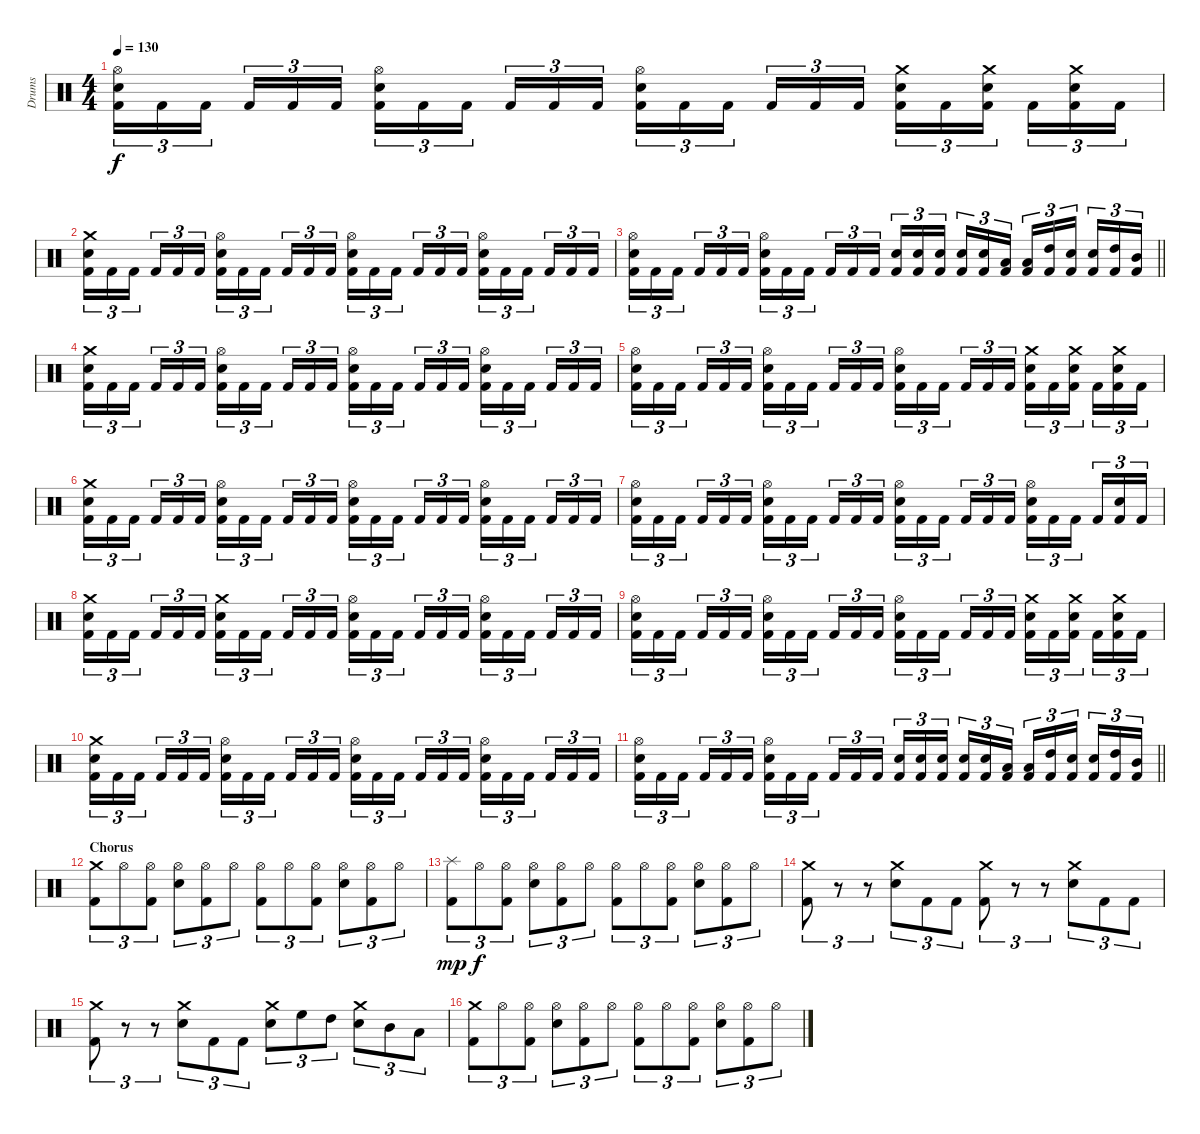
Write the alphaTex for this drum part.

\track ("Drums" "Drums") {instrument percussion}
\staff {score}
\articulation defaults
\ts (4 4)
\tempo 130
\clef neutral
\ks c
("Kick (hit) 2" "Electric Snare (hit)" "Hi-Hat (open)").16{tu (3 2) dy f} "Kick (hit) 2".16{tu (3 2)} "Kick (hit) 2".16{tu (3 2)} "Kick (hit) 2".16{tu (3 2)} "Kick (hit) 2".16{tu (3 2)} "Kick (hit) 2".16{tu (3 2)} ("Kick (hit) 2" "Electric Snare (hit)" "Hi-Hat (open)").16{tu (3 2)} "Kick (hit) 2".16{tu (3 2)} "Kick (hit) 2".16{tu (3 2)} "Kick (hit) 2".16{tu (3 2)} "Kick (hit) 2".16{tu (3 2)} "Kick (hit) 2".16{tu (3 2)} ("Kick (hit) 2" "Electric Snare (hit)" "Hi-Hat (open)").16{tu (3 2)} "Kick (hit) 2".16{tu (3 2)} "Kick (hit) 2".16{tu (3 2)} "Kick (hit) 2".16{tu (3 2)} "Kick (hit) 2".16{tu (3 2)} "Kick (hit) 2".16{tu (3 2)} ("Kick (hit) 2" "Electric Snare (hit)" "Crash medium (hit)").16{tu (3 2)} "Kick (hit) 2".16{tu (3 2)} ("Kick (hit) 2" "Electric Snare (hit)" "Crash medium (hit)").16{tu (3 2)} "Kick (hit) 2".16{tu (3 2)} ("Kick (hit) 2" "Electric Snare (hit)" "Crash medium (hit)").16{tu (3 2)} "Kick (hit) 2".16{tu (3 2)} |
("Kick (hit) 2" "Electric Snare (hit)" "Crash medium (hit)").16{tu (3 2)} "Kick (hit) 2".16{tu (3 2)} "Kick (hit) 2".16{tu (3 2)} "Kick (hit) 2".16{tu (3 2)} "Kick (hit) 2".16{tu (3 2)} "Kick (hit) 2".16{tu (3 2)} ("Kick (hit) 2" "Electric Snare (hit)" "Hi-Hat (open)").16{tu (3 2)} "Kick (hit) 2".16{tu (3 2)} "Kick (hit) 2".16{tu (3 2)} "Kick (hit) 2".16{tu (3 2)} "Kick (hit) 2".16{tu (3 2)} "Kick (hit) 2".16{tu (3 2)} ("Kick (hit) 2" "Electric Snare (hit)" "Hi-Hat (open)").16{tu (3 2)} "Kick (hit) 2".16{tu (3 2)} "Kick (hit) 2".16{tu (3 2)} "Kick (hit) 2".16{tu (3 2)} "Kick (hit) 2".16{tu (3 2)} "Kick (hit) 2".16{tu (3 2)} ("Kick (hit) 2" "Electric Snare (hit)" "Hi-Hat (open)").16{tu (3 2)} "Kick (hit) 2".16{tu (3 2)} "Kick (hit) 2".16{tu (3 2)} "Kick (hit) 2".16{tu (3 2)} "Kick (hit) 2".16{tu (3 2)} "Kick (hit) 2".16{tu (3 2)} |
\barLineRight lightlight
("Kick (hit) 2" "Electric Snare (hit)" "Hi-Hat (open)").16{tu (3 2)} "Kick (hit) 2".16{tu (3 2)} "Kick (hit) 2".16{tu (3 2)} "Kick (hit) 2".16{tu (3 2)} "Kick (hit) 2".16{tu (3 2)} "Kick (hit) 2".16{tu (3 2)} ("Kick (hit) 2" "Electric Snare (hit)" "Hi-Hat (open)").16{tu (3 2)} "Kick (hit) 2".16{tu (3 2)} "Kick (hit) 2".16{tu (3 2)} "Kick (hit) 2".16{tu (3 2)} "Kick (hit) 2".16{tu (3 2)} "Kick (hit) 2".16{tu (3 2)} ("Kick (hit) 2" "Electric Snare (hit)").16{tu (3 2)} ("Kick (hit) 2" "Electric Snare (hit)").16{tu (3 2)} ("Kick (hit) 2" "Electric Snare (hit)").16{tu (3 2)} ("Kick (hit) 2" "Electric Snare (hit)").16{tu (3 2)} ("Kick (hit) 2" "Electric Snare (hit)").16{tu (3 2)} ("Kick (hit) 2" "Low Tom (hit)").16{tu (3 2)} ("Kick (hit) 2" "Low Tom (hit)").16{tu (3 2)} ("Kick (hit) 2" "High Tom (hit)").16{tu (3 2)} ("Kick (hit) 2" "Electric Snare (hit)").16{tu (3 2)} ("Kick (hit) 2" "Electric Snare (hit)").16{tu (3 2)} ("Kick (hit) 2" "High Tom (hit)").16{tu (3 2)} ("Kick (hit) 2" "Mid Tom (hit)").16{tu (3 2)} |
("Kick (hit) 2" "Electric Snare (hit)" "Crash medium (hit)").16{tu (3 2)} "Kick (hit) 2".16{tu (3 2)} "Kick (hit) 2".16{tu (3 2)} "Kick (hit) 2".16{tu (3 2)} "Kick (hit) 2".16{tu (3 2)} "Kick (hit) 2".16{tu (3 2)} ("Kick (hit) 2" "Electric Snare (hit)" "Hi-Hat (open)").16{tu (3 2)} "Kick (hit) 2".16{tu (3 2)} "Kick (hit) 2".16{tu (3 2)} "Kick (hit) 2".16{tu (3 2)} "Kick (hit) 2".16{tu (3 2)} "Kick (hit) 2".16{tu (3 2)} ("Kick (hit) 2" "Electric Snare (hit)" "Hi-Hat (open)").16{tu (3 2)} "Kick (hit) 2".16{tu (3 2)} "Kick (hit) 2".16{tu (3 2)} "Kick (hit) 2".16{tu (3 2)} "Kick (hit) 2".16{tu (3 2)} "Kick (hit) 2".16{tu (3 2)} ("Kick (hit) 2" "Electric Snare (hit)" "Hi-Hat (open)").16{tu (3 2)} "Kick (hit) 2".16{tu (3 2)} "Kick (hit) 2".16{tu (3 2)} "Kick (hit) 2".16{tu (3 2)} "Kick (hit) 2".16{tu (3 2)} "Kick (hit) 2".16{tu (3 2)} |
("Kick (hit) 2" "Electric Snare (hit)" "Hi-Hat (open)").16{tu (3 2)} "Kick (hit) 2".16{tu (3 2)} "Kick (hit) 2".16{tu (3 2)} "Kick (hit) 2".16{tu (3 2)} "Kick (hit) 2".16{tu (3 2)} "Kick (hit) 2".16{tu (3 2)} ("Kick (hit) 2" "Electric Snare (hit)" "Hi-Hat (open)").16{tu (3 2)} "Kick (hit) 2".16{tu (3 2)} "Kick (hit) 2".16{tu (3 2)} "Kick (hit) 2".16{tu (3 2)} "Kick (hit) 2".16{tu (3 2)} "Kick (hit) 2".16{tu (3 2)} ("Kick (hit) 2" "Electric Snare (hit)" "Hi-Hat (open)").16{tu (3 2)} "Kick (hit) 2".16{tu (3 2)} "Kick (hit) 2".16{tu (3 2)} "Kick (hit) 2".16{tu (3 2)} "Kick (hit) 2".16{tu (3 2)} "Kick (hit) 2".16{tu (3 2)} ("Kick (hit) 2" "Electric Snare (hit)" "Crash medium (hit)").16{tu (3 2)} "Kick (hit) 2".16{tu (3 2)} ("Kick (hit) 2" "Electric Snare (hit)" "Crash medium (hit)").16{tu (3 2)} "Kick (hit) 2".16{tu (3 2)} ("Kick (hit) 2" "Electric Snare (hit)" "Crash medium (hit)").16{tu (3 2)} "Kick (hit) 2".16{tu (3 2)} |
("Kick (hit) 2" "Electric Snare (hit)" "Crash medium (hit)").16{tu (3 2)} "Kick (hit) 2".16{tu (3 2)} "Kick (hit) 2".16{tu (3 2)} "Kick (hit) 2".16{tu (3 2)} "Kick (hit) 2".16{tu (3 2)} "Kick (hit) 2".16{tu (3 2)} ("Kick (hit) 2" "Electric Snare (hit)" "Hi-Hat (open)").16{tu (3 2)} "Kick (hit) 2".16{tu (3 2)} "Kick (hit) 2".16{tu (3 2)} "Kick (hit) 2".16{tu (3 2)} "Kick (hit) 2".16{tu (3 2)} "Kick (hit) 2".16{tu (3 2)} ("Kick (hit) 2" "Electric Snare (hit)" "Hi-Hat (open)").16{tu (3 2)} "Kick (hit) 2".16{tu (3 2)} "Kick (hit) 2".16{tu (3 2)} "Kick (hit) 2".16{tu (3 2)} "Kick (hit) 2".16{tu (3 2)} "Kick (hit) 2".16{tu (3 2)} ("Kick (hit) 2" "Electric Snare (hit)" "Hi-Hat (open)").16{tu (3 2)} "Kick (hit) 2".16{tu (3 2)} "Kick (hit) 2".16{tu (3 2)} "Kick (hit) 2".16{tu (3 2)} "Kick (hit) 2".16{tu (3 2)} "Kick (hit) 2".16{tu (3 2)} |
("Kick (hit) 2" "Electric Snare (hit)" "Hi-Hat (open)").16{tu (3 2)} "Kick (hit) 2".16{tu (3 2)} "Kick (hit) 2".16{tu (3 2)} "Kick (hit) 2".16{tu (3 2)} "Kick (hit) 2".16{tu (3 2)} "Kick (hit) 2".16{tu (3 2)} ("Kick (hit) 2" "Electric Snare (hit)" "Hi-Hat (open)").16{tu (3 2)} "Kick (hit) 2".16{tu (3 2)} "Kick (hit) 2".16{tu (3 2)} "Kick (hit) 2".16{tu (3 2)} "Kick (hit) 2".16{tu (3 2)} "Kick (hit) 2".16{tu (3 2)} ("Kick (hit) 2" "Electric Snare (hit)" "Hi-Hat (open)").16{tu (3 2)} "Kick (hit) 2".16{tu (3 2)} "Kick (hit) 2".16{tu (3 2)} "Kick (hit) 2".16{tu (3 2)} "Kick (hit) 2".16{tu (3 2)} "Kick (hit) 2".16{tu (3 2)} ("Kick (hit) 2" "Electric Snare (hit)" "Hi-Hat (open)").16{tu (3 2)} "Kick (hit) 2".16{tu (3 2)} "Kick (hit) 2".16{tu (3 2)} "Kick (hit) 2".16{tu (3 2)} ("Kick (hit) 2" "Electric Snare (hit)").16{tu (3 2)} "Kick (hit) 2".16{tu (3 2)} |
("Kick (hit) 2" "Electric Snare (hit)" "Crash medium (hit)").16{tu (3 2)} "Kick (hit) 2".16{tu (3 2)} "Kick (hit) 2".16{tu (3 2)} "Kick (hit) 2".16{tu (3 2)} "Kick (hit) 2".16{tu (3 2)} "Kick (hit) 2".16{tu (3 2)} ("Kick (hit) 2" "Electric Snare (hit)" "Crash medium (hit)").16{tu (3 2)} "Kick (hit) 2".16{tu (3 2)} "Kick (hit) 2".16{tu (3 2)} "Kick (hit) 2".16{tu (3 2)} "Kick (hit) 2".16{tu (3 2)} "Kick (hit) 2".16{tu (3 2)} ("Kick (hit) 2" "Electric Snare (hit)" "Hi-Hat (open)").16{tu (3 2)} "Kick (hit) 2".16{tu (3 2)} "Kick (hit) 2".16{tu (3 2)} "Kick (hit) 2".16{tu (3 2)} "Kick (hit) 2".16{tu (3 2)} "Kick (hit) 2".16{tu (3 2)} ("Kick (hit) 2" "Electric Snare (hit)" "Hi-Hat (open)").16{tu (3 2)} "Kick (hit) 2".16{tu (3 2)} "Kick (hit) 2".16{tu (3 2)} "Kick (hit) 2".16{tu (3 2)} "Kick (hit) 2".16{tu (3 2)} "Kick (hit) 2".16{tu (3 2)} |
("Kick (hit) 2" "Electric Snare (hit)" "Hi-Hat (open)").16{tu (3 2)} "Kick (hit) 2".16{tu (3 2)} "Kick (hit) 2".16{tu (3 2)} "Kick (hit) 2".16{tu (3 2)} "Kick (hit) 2".16{tu (3 2)} "Kick (hit) 2".16{tu (3 2)} ("Kick (hit) 2" "Electric Snare (hit)" "Hi-Hat (open)").16{tu (3 2)} "Kick (hit) 2".16{tu (3 2)} "Kick (hit) 2".16{tu (3 2)} "Kick (hit) 2".16{tu (3 2)} "Kick (hit) 2".16{tu (3 2)} "Kick (hit) 2".16{tu (3 2)} ("Kick (hit) 2" "Electric Snare (hit)" "Hi-Hat (open)").16{tu (3 2)} "Kick (hit) 2".16{tu (3 2)} "Kick (hit) 2".16{tu (3 2)} "Kick (hit) 2".16{tu (3 2)} "Kick (hit) 2".16{tu (3 2)} "Kick (hit) 2".16{tu (3 2)} ("Kick (hit) 2" "Electric Snare (hit)" "Crash medium (hit)").16{tu (3 2)} "Kick (hit) 2".16{tu (3 2)} ("Kick (hit) 2" "Electric Snare (hit)" "Crash medium (hit)").16{tu (3 2)} "Kick (hit) 2".16{tu (3 2)} ("Kick (hit) 2" "Electric Snare (hit)" "Crash medium (hit)").16{tu (3 2)} "Kick (hit) 2".16{tu (3 2)} |
("Kick (hit) 2" "Electric Snare (hit)" "Crash medium (hit)").16{tu (3 2)} "Kick (hit) 2".16{tu (3 2)} "Kick (hit) 2".16{tu (3 2)} "Kick (hit) 2".16{tu (3 2)} "Kick (hit) 2".16{tu (3 2)} "Kick (hit) 2".16{tu (3 2)} ("Kick (hit) 2" "Electric Snare (hit)" "Hi-Hat (open)").16{tu (3 2)} "Kick (hit) 2".16{tu (3 2)} "Kick (hit) 2".16{tu (3 2)} "Kick (hit) 2".16{tu (3 2)} "Kick (hit) 2".16{tu (3 2)} "Kick (hit) 2".16{tu (3 2)} ("Kick (hit) 2" "Electric Snare (hit)" "Hi-Hat (open)").16{tu (3 2)} "Kick (hit) 2".16{tu (3 2)} "Kick (hit) 2".16{tu (3 2)} "Kick (hit) 2".16{tu (3 2)} "Kick (hit) 2".16{tu (3 2)} "Kick (hit) 2".16{tu (3 2)} ("Kick (hit) 2" "Electric Snare (hit)" "Hi-Hat (open)").16{tu (3 2)} "Kick (hit) 2".16{tu (3 2)} "Kick (hit) 2".16{tu (3 2)} "Kick (hit) 2".16{tu (3 2)} "Kick (hit) 2".16{tu (3 2)} "Kick (hit) 2".16{tu (3 2)} |
\barLineRight lightlight
("Kick (hit) 2" "Electric Snare (hit)" "Hi-Hat (open)").16{tu (3 2)} "Kick (hit) 2".16{tu (3 2)} "Kick (hit) 2".16{tu (3 2)} "Kick (hit) 2".16{tu (3 2)} "Kick (hit) 2".16{tu (3 2)} "Kick (hit) 2".16{tu (3 2)} ("Kick (hit) 2" "Electric Snare (hit)" "Hi-Hat (open)").16{tu (3 2)} "Kick (hit) 2".16{tu (3 2)} "Kick (hit) 2".16{tu (3 2)} "Kick (hit) 2".16{tu (3 2)} "Kick (hit) 2".16{tu (3 2)} "Kick (hit) 2".16{tu (3 2)} ("Kick (hit) 2" "Electric Snare (hit)").16{tu (3 2)} ("Kick (hit) 2" "Electric Snare (hit)").16{tu (3 2)} ("Kick (hit) 2" "Electric Snare (hit)").16{tu (3 2)} ("Kick (hit) 2" "Electric Snare (hit)").16{tu (3 2)} ("Kick (hit) 2" "Electric Snare (hit)").16{tu (3 2)} ("Kick (hit) 2" "Low Tom (hit)").16{tu (3 2)} ("Kick (hit) 2" "Low Tom (hit)").16{tu (3 2)} ("Kick (hit) 2" "High Tom (hit)").16{tu (3 2)} ("Kick (hit) 2" "Electric Snare (hit)").16{tu (3 2)} ("Kick (hit) 2" "Electric Snare (hit)").16{tu (3 2)} ("Kick (hit) 2" "High Tom (hit)").16{tu (3 2)} ("Kick (hit) 2" "Mid Tom (hit)").16{tu (3 2)} |
\section ("" "Chorus")
("Kick (hit) 2" "Crash medium (hit)").8{tu (3 2)} "Hi-Hat (open)".8{tu (3 2)} ("Kick (hit) 2" "Hi-Hat (open)").8{tu (3 2)} ("Electric Snare (hit)" "Hi-Hat (open)").8{tu (3 2)} ("Kick (hit) 2" "Hi-Hat (open)").8{tu (3 2)} "Hi-Hat (open)".8{tu (3 2)} ("Kick (hit) 2" "Hi-Hat (open)").8{tu (3 2)} "Hi-Hat (open)".8{tu (3 2)} ("Kick (hit) 2" "Hi-Hat (open)").8{tu (3 2)} ("Electric Snare (hit)" "Hi-Hat (open)").8{tu (3 2)} ("Kick (hit) 2" "Hi-Hat (open)").8{tu (3 2)} "Hi-Hat (open)".8{tu (3 2)} |
("Kick (hit) 2" "Splash (hit)").8{tu (3 2) dy mp} "Hi-Hat (open)".8{tu (3 2) dy f} ("Kick (hit) 2" "Hi-Hat (open)").8{tu (3 2)} ("Electric Snare (hit)" "Hi-Hat (open)").8{tu (3 2)} ("Kick (hit) 2" "Hi-Hat (open)").8{tu (3 2)} "Hi-Hat (open)".8{tu (3 2)} ("Kick (hit) 2" "Hi-Hat (open)").8{tu (3 2)} "Hi-Hat (open)".8{tu (3 2)} ("Kick (hit) 2" "Hi-Hat (open)").8{tu (3 2)} ("Electric Snare (hit)" "Hi-Hat (open)").8{tu (3 2)} ("Kick (hit) 2" "Hi-Hat (open)").8{tu (3 2)} "Hi-Hat (open)".8{tu (3 2)} |
("Kick (hit) 2" "Crash medium (hit)").8{tu (3 2)} r.8{tu (3 2)} r.8{tu (3 2)} ("Electric Snare (hit)" "Crash medium (hit)").8{tu (3 2)} "Kick (hit) 2".8{tu (3 2)} "Kick (hit) 2".8{tu (3 2)} ("Kick (hit) 2" "Crash medium (hit)").8{tu (3 2)} r.8{tu (3 2)} r.8{tu (3 2)} ("Electric Snare (hit)" "Crash medium (hit)").8{tu (3 2)} "Kick (hit) 2".8{tu (3 2)} "Kick (hit) 2".8{tu (3 2)} |
("Kick (hit) 2" "Crash medium (hit)").8{tu (3 2)} r.8{tu (3 2)} r.8{tu (3 2)} ("Electric Snare (hit)" "Crash medium (hit)").8{tu (3 2)} "Kick (hit) 2".8{tu (3 2)} "Kick (hit) 2".8{tu (3 2)} ("Electric Snare (hit)" "Crash medium (hit)").8{tu (3 2)} "High Floor Tom (hit)".8{tu (3 2)} "High Tom (hit)".8{tu (3 2)} ("Electric Snare (hit)" "Crash medium (hit)").8{tu (3 2)} "Mid Tom (hit)".8{tu (3 2)} "Low Tom (hit)".8{tu (3 2)} |
("Kick (hit) 2" "Crash medium (hit)").8{tu (3 2)} "Hi-Hat (open)".8{tu (3 2)} ("Kick (hit) 2" "Hi-Hat (open)").8{tu (3 2)} ("Electric Snare (hit)" "Hi-Hat (open)").8{tu (3 2)} ("Kick (hit) 2" "Hi-Hat (open)").8{tu (3 2)} "Hi-Hat (open)".8{tu (3 2)} ("Kick (hit) 2" "Hi-Hat (open)").8{tu (3 2)} "Hi-Hat (open)".8{tu (3 2)} ("Kick (hit) 2" "Hi-Hat (open)").8{tu (3 2)} ("Electric Snare (hit)" "Hi-Hat (open)").8{tu (3 2)} ("Kick (hit) 2" "Hi-Hat (open)").8{tu (3 2)} "Hi-Hat (open)".8{tu (3 2)}
